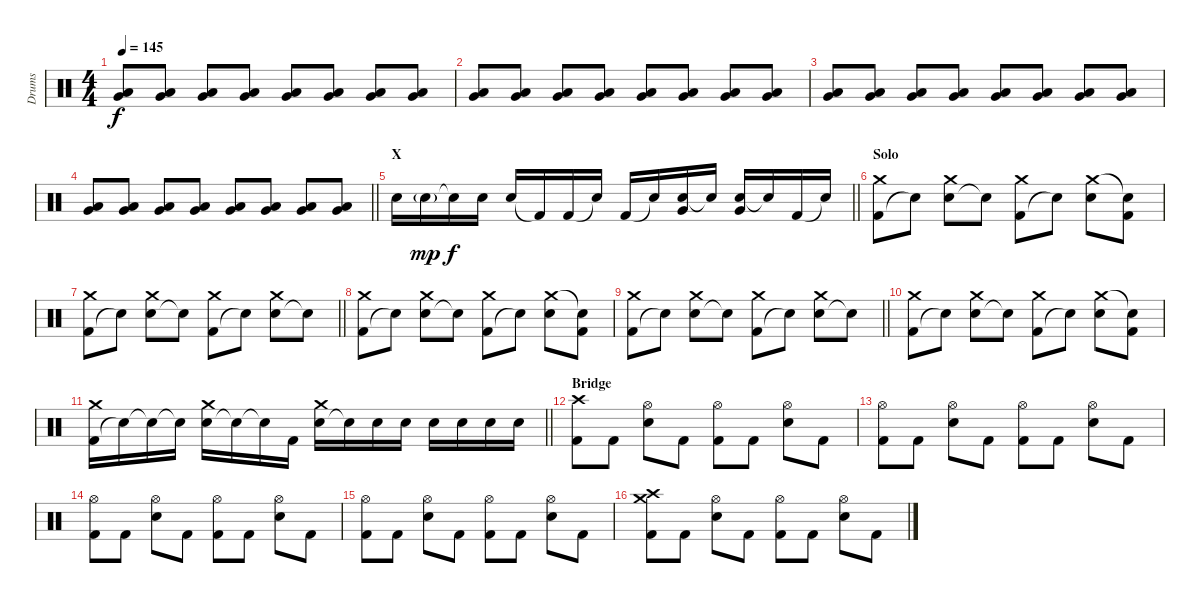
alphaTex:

\track ("Drums" "Drums") {instrument percussion}
\staff {score}
\articulation defaults
\ts (4 4)
\tempo 145
\clef neutral
\ks c
("Low Tom (hit)" "Very Low Tom (hit)").8{dy f volume 13} ("Low Tom (hit)" "Very Low Tom (hit)").8 ("Low Tom (hit)" "Very Low Tom (hit)").8 ("Low Tom (hit)" "Very Low Tom (hit)").8 ("Low Tom (hit)" "Very Low Tom (hit)").8 ("Low Tom (hit)" "Very Low Tom (hit)").8 ("Low Tom (hit)" "Very Low Tom (hit)").8 ("Low Tom (hit)" "Very Low Tom (hit)").8 |
("Low Tom (hit)" "Very Low Tom (hit)").8 ("Low Tom (hit)" "Very Low Tom (hit)").8 ("Low Tom (hit)" "Very Low Tom (hit)").8 ("Low Tom (hit)" "Very Low Tom (hit)").8 ("Low Tom (hit)" "Very Low Tom (hit)").8 ("Low Tom (hit)" "Very Low Tom (hit)").8 ("Low Tom (hit)" "Very Low Tom (hit)").8 ("Low Tom (hit)" "Very Low Tom (hit)").8 |
("Low Tom (hit)" "Very Low Tom (hit)").8 ("Low Tom (hit)" "Very Low Tom (hit)").8 ("Low Tom (hit)" "Very Low Tom (hit)").8 ("Low Tom (hit)" "Very Low Tom (hit)").8 ("Low Tom (hit)" "Very Low Tom (hit)").8 ("Low Tom (hit)" "Very Low Tom (hit)").8 ("Low Tom (hit)" "Very Low Tom (hit)").8 ("Low Tom (hit)" "Very Low Tom (hit)").8 |
\barLineRight lightlight
("Low Tom (hit)" "Very Low Tom (hit)").8 ("Low Tom (hit)" "Very Low Tom (hit)").8 ("Low Tom (hit)" "Very Low Tom (hit)").8 ("Low Tom (hit)" "Very Low Tom (hit)").8 ("Low Tom (hit)" "Very Low Tom (hit)").8 ("Low Tom (hit)" "Very Low Tom (hit)").8 ("Low Tom (hit)" "Very Low Tom (hit)").8 ("Low Tom (hit)" "Very Low Tom (hit)").8 |
\section ("" "X")
\barLineRight lightlight "Electric Snare (hit)".16 "Electric Snare (hit)"{g}.16{dy mp} "Electric Snare (hit)"{t}.16{dy f} "Electric Snare (hit)".16 "Electric Snare (hit)".16 "Kick (hit) 2"{t}.16 "Kick (hit) 2".16 "Snare (hit)"{t}.16 "Kick (hit) 2".16 "Snare (hit)"{t}.16
("Electric Snare (hit)" "Very Low Tom (hit)").16 "Snare (hit)"{t}.16 ("Electric Snare (hit)" "Very Low Tom (hit)").16 "Snare (hit)"{t}.16 "Kick (hit) 2".16 "Snare (hit)"{t}.16 |
\section ("" "Solo")
("Kick (hit) 2" "Crash medium (hit)").8 "Snare (hit)"{t}.8 ("Electric Snare (hit)" "Crash medium (hit)").8 "Snare (hit)"{t}.8 ("Kick (hit) 2" "Crash medium (hit)").8 "Snare (hit)"{t}.8 ("Electric Snare (hit)" "Crash medium (hit)").8 ("Kick (hit) 2" "Snare (hit)"{t}).8 |
\barLineRight lightlight
("Kick (hit) 2" "Crash medium (hit)").8 "Snare (hit)"{t}.8 ("Electric Snare (hit)" "Crash medium (hit)").8 "Snare (hit)"{t}.8 ("Kick (hit) 2" "Crash medium (hit)").8 "Snare (hit)"{t}.8 ("Electric Snare (hit)" "Crash medium (hit)").8 "Snare (hit)"{t}.8 |
("Kick (hit) 2" "Crash medium (hit)").8 "Snare (hit)"{t}.8 ("Electric Snare (hit)" "Crash medium (hit)").8 "Snare (hit)"{t}.8 ("Kick (hit) 2" "Crash medium (hit)").8 "Snare (hit)"{t}.8 ("Electric Snare (hit)" "Crash medium (hit)").8 ("Kick (hit) 2" "Snare (hit)"{t}).8 |
\barLineRight lightlight
("Kick (hit) 2" "Crash medium (hit)").8 "Snare (hit)"{t}.8 ("Electric Snare (hit)" "Crash medium (hit)").8 "Snare (hit)"{t}.8 ("Kick (hit) 2" "Crash medium (hit)").8 "Snare (hit)"{t}.8 ("Electric Snare (hit)" "Crash medium (hit)").8 "Snare (hit)"{t}.8 |
("Kick (hit) 2" "Crash medium (hit)").8 "Snare (hit)"{t}.8 ("Electric Snare (hit)" "Crash medium (hit)").8 "Snare (hit)"{t}.8 ("Kick (hit) 2" "Crash medium (hit)").8 "Snare (hit)"{t}.8 ("Electric Snare (hit)" "Crash medium (hit)").8 ("Kick (hit) 2" "Snare (hit)"{t}).8 |
\barLineRight lightlight
("Kick (hit) 2" "Crash medium (hit)").16 "Snare (hit)"{t}.16 "Snare (hit)"{t}.16 "Snare (hit)"{t}.16 ("Electric Snare (hit)" "Crash medium (hit)").16 "Snare (hit)"{t}.16 "Snare (hit)"{t}.16 "Kick (hit) 2".16 ("Electric Snare (hit)" "Crash medium (hit)").16 "Snare (hit)"{t}.16 "Electric Snare (hit)".16 "Electric Snare (hit)".16 "Electric Snare (hit)".16 "Electric Snare (hit)".16 "Electric Snare (hit)".16 "Electric Snare (hit)".16 |
\section ("" "Bridge")
("Kick (hit) 2" "Crash high (hit)").8 "Kick (hit) 2".8 ("Electric Snare (hit)" "Hi-Hat (open)").8 "Kick (hit) 2".8 ("Kick (hit) 2" "Hi-Hat (open)").8 "Kick (hit) 2".8 ("Electric Snare (hit)" "Hi-Hat (open)").8 "Kick (hit) 2".8 |
("Kick (hit) 2" "Hi-Hat (open)").8 "Kick (hit) 2".8 ("Electric Snare (hit)" "Hi-Hat (open)").8 "Kick (hit) 2".8 ("Kick (hit) 2" "Hi-Hat (open)").8 "Kick (hit) 2".8 ("Electric Snare (hit)" "Hi-Hat (open)").8 "Kick (hit) 2".8 |
("Kick (hit) 2" "Hi-Hat (open)").8 "Kick (hit) 2".8 ("Electric Snare (hit)" "Hi-Hat (open)").8 "Kick (hit) 2".8 ("Kick (hit) 2" "Hi-Hat (open)").8 "Kick (hit) 2".8 ("Electric Snare (hit)" "Hi-Hat (open)").8 "Kick (hit) 2".8 |
("Kick (hit) 2" "Hi-Hat (open)").8 "Kick (hit) 2".8 ("Electric Snare (hit)" "Hi-Hat (open)").8 "Kick (hit) 2".8 ("Kick (hit) 2" "Hi-Hat (open)").8 "Kick (hit) 2".8 ("Electric Snare (hit)" "Hi-Hat (open)").8 "Kick (hit) 2".8 |
("Kick (hit) 2" "Crash medium (hit)" "Crash high (hit)").8 "Kick (hit) 2".8 ("Electric Snare (hit)" "Hi-Hat (open)").8 "Kick (hit) 2".8 ("Kick (hit) 2" "Hi-Hat (open)").8 "Kick (hit) 2".8 ("Electric Snare (hit)" "Hi-Hat (open)").8 "Kick (hit) 2".8
